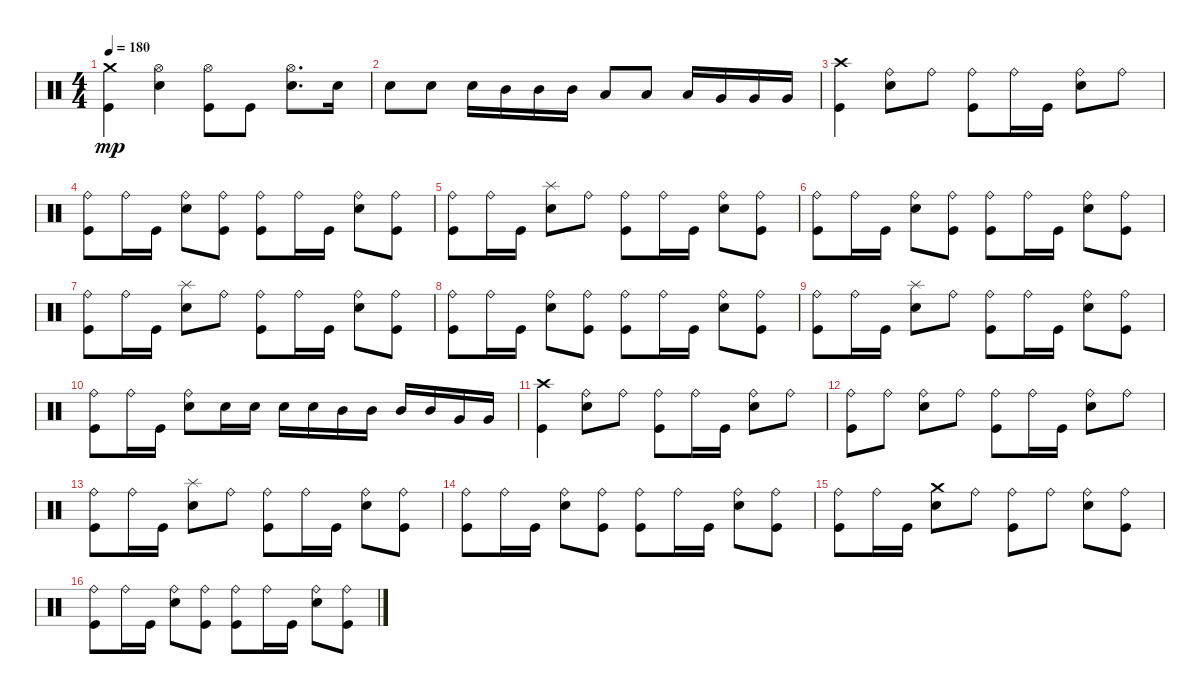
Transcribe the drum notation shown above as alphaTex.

\track "" {instrument percussion}
\staff {score}
\articulation defaults
\ts (4 4)
\tempo 180
\clef neutral
\ks c
("Kick (hit)" "Crash medium (hit)").4{dy mp} ("Electric Snare (hit)" "Hi-Hat (open)").4 ("Kick (hit)" "Hi-Hat (open)").8 "Kick (hit)".8 ("Electric Snare (hit)" "Hi-Hat (open)").8{d} "Electric Snare (hit)".16 |
"Electric Snare (hit)".8 "Electric Snare (hit)".8 "Electric Snare (hit)".16 "Mid Tom (hit)".16 "Mid Tom (hit)".16 "Mid Tom (hit)".16 "Low Tom (hit)".8 "Low Tom (hit)".8 "Low Tom (hit)".16 "Very Low Tom (hit)".16 "Very Low Tom (hit)".16 "Very Low Tom (hit)".16 |
("Kick (hit)" "Crash high (hit)").4 ("Electric Snare (hit)" "Ride (bell)").8 "Ride (bell)".8 ("Kick (hit)" "Ride (bell)").8 "Ride (bell)".16 "Kick (hit)".16 ("Electric Snare (hit)" "Ride (bell)").8 "Ride (bell)".8 |
("Kick (hit)" "Ride (bell)").8 "Ride (bell)".16 "Kick (hit)".16 ("Electric Snare (hit)" "Ride (bell)").8 ("Kick (hit)" "Ride (bell)").8 ("Kick (hit)" "Ride (bell)").8 "Ride (bell)".16 "Kick (hit)".16 ("Electric Snare (hit)" "Ride (bell)").8 ("Kick (hit)" "Ride (bell)").8 |
("Kick (hit)" "Ride (bell)").8 "Ride (bell)".16 "Kick (hit)".16 ("Electric Snare (hit)" "Splash (hit)").8 "Ride (bell)".8 ("Kick (hit)" "Ride (bell)").8 "Ride (bell)".16 "Kick (hit)".16 ("Electric Snare (hit)" "Ride (bell)").8 ("Kick (hit)" "Ride (bell)").8 |
("Kick (hit)" "Ride (bell)").8 "Ride (bell)".16 "Kick (hit)".16 ("Electric Snare (hit)" "Ride (bell)").8 ("Kick (hit)" "Ride (bell)").8 ("Kick (hit)" "Ride (bell)").8 "Ride (bell)".16 "Kick (hit)".16 ("Electric Snare (hit)" "Ride (bell)").8 ("Kick (hit)" "Ride (bell)").8 |
("Kick (hit)" "Ride (bell)").8 "Ride (bell)".16 "Kick (hit)".16 ("Electric Snare (hit)" "Splash (hit)").8 "Ride (bell)".8 ("Kick (hit)" "Ride (bell)").8 "Ride (bell)".16 "Kick (hit)".16 ("Electric Snare (hit)" "Ride (bell)").8 ("Kick (hit)" "Ride (bell)").8 |
("Kick (hit)" "Ride (bell)").8 "Ride (bell)".16 "Kick (hit)".16 ("Electric Snare (hit)" "Ride (bell)").8 ("Kick (hit)" "Ride (bell)").8 ("Kick (hit)" "Ride (bell)").8 "Ride (bell)".16 "Kick (hit)".16 ("Electric Snare (hit)" "Ride (bell)").8 ("Kick (hit)" "Ride (bell)").8 |
("Kick (hit)" "Ride (bell)").8 "Ride (bell)".16 "Kick (hit)".16 ("Electric Snare (hit)" "Splash (hit)").8 "Ride (bell)".8 ("Kick (hit)" "Ride (bell)").8 "Ride (bell)".16 "Kick (hit)".16 ("Electric Snare (hit)" "Ride (bell)").8 ("Kick (hit)" "Ride (bell)").8 |
("Kick (hit)" "Ride (bell)").8 "Ride (bell)".16 "Kick (hit)".16 ("Electric Snare (hit)" "Ride (bell)").8 "Electric Snare (hit)".16 "Electric Snare (hit)".16 "Electric Snare (hit)".16 "Electric Snare (hit)".16 "Mid Tom (hit)".16 "Mid Tom (hit)".16 "Mid Tom (hit)".16 "Mid Tom (hit)".16 "Very Low Tom (hit)".16 "Very Low Tom (hit)".16 |
("Kick (hit)" "Crash high (hit)").4 ("Electric Snare (hit)" "Ride (bell)").8 "Ride (bell)".8 ("Kick (hit)" "Ride (bell)").8 "Ride (bell)".16 "Kick (hit)".16 ("Electric Snare (hit)" "Ride (bell)").8 "Ride (bell)".8 |
("Kick (hit)" "Ride (bell)").8 "Ride (bell)".8 ("Electric Snare (hit)" "Ride (bell)").8 "Ride (bell)".8 ("Kick (hit)" "Ride (bell)").8 "Ride (bell)".16 "Kick (hit)".16 ("Electric Snare (hit)" "Ride (bell)").8 "Ride (bell)".8 |
("Kick (hit)" "Ride (bell)").8 "Ride (bell)".16 "Kick (hit)".16 ("Electric Snare (hit)" "Splash (hit)").8 "Ride (bell)".8 ("Kick (hit)" "Ride (bell)").8 "Ride (bell)".16 "Kick (hit)".16 ("Electric Snare (hit)" "Ride (bell)").8 ("Kick (hit)" "Ride (bell)").8 |
("Kick (hit)" "Ride (bell)").8 "Ride (bell)".16 "Kick (hit)".16 ("Electric Snare (hit)" "Ride (bell)").8 ("Kick (hit)" "Ride (bell)").8 ("Kick (hit)" "Ride (bell)").8 "Ride (bell)".16 "Kick (hit)".16 ("Electric Snare (hit)" "Ride (bell)").8 ("Kick (hit)" "Ride (bell)").8 |
("Kick (hit)" "Ride (bell)").8 "Ride (bell)".16 "Kick (hit)".16 ("Electric Snare (hit)" "Crash medium (hit)").8 "Ride (bell)".8 ("Kick (hit)" "Ride (bell)").8 "Ride (bell)".8 ("Electric Snare (hit)" "Ride (bell)").8 ("Kick (hit)" "Ride (bell)").8 |
("Kick (hit)" "Ride (bell)").8 "Ride (bell)".16 "Kick (hit)".16 ("Electric Snare (hit)" "Ride (bell)").8 ("Kick (hit)" "Ride (bell)").8 ("Kick (hit)" "Ride (bell)").8 "Ride (bell)".16 "Kick (hit)".16 ("Electric Snare (hit)" "Ride (bell)").8 ("Kick (hit)" "Ride (bell)").8
